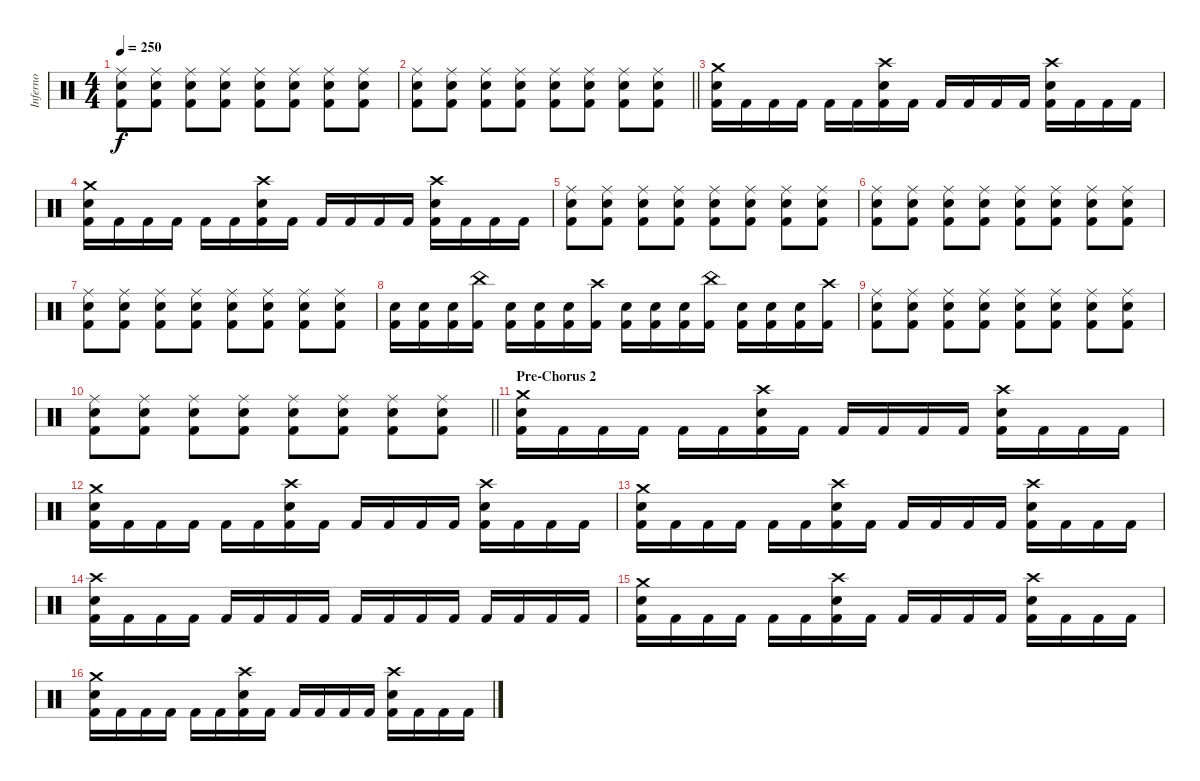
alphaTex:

\track ("Inferno" "Inferno") {instrument percussion}
\staff {score}
\articulation defaults
\ts (4 4)
\tempo 250
\clef neutral
\ks c
("Ride (middle)" "Electric Snare (hit)" "Kick (hit) 2").8{dy f} ("Ride (middle)" "Electric Snare (hit)" "Kick (hit) 2").8 ("Ride (middle)" "Electric Snare (hit)" "Kick (hit) 2").8 ("Ride (middle)" "Electric Snare (hit)" "Kick (hit) 2").8 ("Ride (middle)" "Electric Snare (hit)" "Kick (hit) 2").8 ("Ride (middle)" "Electric Snare (hit)" "Kick (hit) 2").8 ("Ride (middle)" "Electric Snare (hit)" "Kick (hit) 2").8 ("Ride (middle)" "Electric Snare (hit)" "Kick (hit) 2").8 |
\barLineRight lightlight
("Ride (middle)" "Electric Snare (hit)" "Kick (hit) 2").8 ("Ride (middle)" "Electric Snare (hit)" "Kick (hit) 2").8 ("Ride (middle)" "Electric Snare (hit)" "Kick (hit) 2").8 ("Ride (middle)" "Electric Snare (hit)" "Kick (hit) 2").8 ("Ride (middle)" "Electric Snare (hit)" "Kick (hit) 2").8 ("Ride (middle)" "Electric Snare (hit)" "Kick (hit) 2").8 ("Ride (middle)" "Electric Snare (hit)" "Kick (hit) 2").8 ("Ride (middle)" "Electric Snare (hit)" "Kick (hit) 2").8 |
("Crash medium (hit)" "Electric Snare (hit)" "Kick (hit) 2").16 "Kick (hit) 2".16 "Kick (hit) 2".16 "Kick (hit) 2".16 "Kick (hit) 2".16 "Kick (hit) 2".16 ("Crash high (hit)" "Electric Snare (hit)" "Kick (hit) 2").16 "Kick (hit) 2".16 "Kick (hit) 2".16 "Kick (hit) 2".16 "Kick (hit) 2".16 "Kick (hit) 2".16 ("Crash high (hit)" "Electric Snare (hit)" "Kick (hit) 2").16 "Kick (hit) 2".16 "Kick (hit) 2".16 "Kick (hit) 2".16 |
("Crash medium (hit)" "Electric Snare (hit)" "Kick (hit) 2").16 "Kick (hit) 2".16 "Kick (hit) 2".16 "Kick (hit) 2".16 "Kick (hit) 2".16 "Kick (hit) 2".16 ("Crash high (hit)" "Electric Snare (hit)" "Kick (hit) 2").16 "Kick (hit) 2".16 "Kick (hit) 2".16 "Kick (hit) 2".16 "Kick (hit) 2".16 "Kick (hit) 2".16 ("Crash high (hit)" "Electric Snare (hit)" "Kick (hit) 2").16 "Kick (hit) 2".16 "Kick (hit) 2".16 "Kick (hit) 2".16 |
("Ride (middle)" "Electric Snare (hit)" "Kick (hit) 2").8 ("Ride (middle)" "Electric Snare (hit)" "Kick (hit) 2").8 ("Ride (middle)" "Electric Snare (hit)" "Kick (hit) 2").8 ("Ride (middle)" "Electric Snare (hit)" "Kick (hit) 2").8 ("Ride (middle)" "Electric Snare (hit)" "Kick (hit) 2").8 ("Ride (middle)" "Electric Snare (hit)" "Kick (hit) 2").8 ("Ride (middle)" "Electric Snare (hit)" "Kick (hit) 2").8 ("Ride (middle)" "Electric Snare (hit)" "Kick (hit) 2").8 |
("Ride (middle)" "Electric Snare (hit)" "Kick (hit) 2").8 ("Ride (middle)" "Electric Snare (hit)" "Kick (hit) 2").8 ("Ride (middle)" "Electric Snare (hit)" "Kick (hit) 2").8 ("Ride (middle)" "Electric Snare (hit)" "Kick (hit) 2").8 ("Ride (middle)" "Electric Snare (hit)" "Kick (hit) 2").8 ("Ride (middle)" "Electric Snare (hit)" "Kick (hit) 2").8 ("Ride (middle)" "Electric Snare (hit)" "Kick (hit) 2").8 ("Ride (middle)" "Electric Snare (hit)" "Kick (hit) 2").8 |
("Ride (middle)" "Electric Snare (hit)" "Kick (hit) 2").8 ("Ride (middle)" "Electric Snare (hit)" "Kick (hit) 2").8 ("Ride (middle)" "Electric Snare (hit)" "Kick (hit) 2").8 ("Ride (middle)" "Electric Snare (hit)" "Kick (hit) 2").8 ("Ride (middle)" "Electric Snare (hit)" "Kick (hit) 2").8 ("Ride (middle)" "Electric Snare (hit)" "Kick (hit) 2").8 ("Ride (middle)" "Electric Snare (hit)" "Kick (hit) 2").8 ("Ride (middle)" "Electric Snare (hit)" "Kick (hit) 2").8 |
("Electric Snare (hit)" "Kick (hit) 2").16 ("Electric Snare (hit)" "Kick (hit) 2").16 ("Electric Snare (hit)" "Kick (hit) 2").16 ("China (hit)" "Kick (hit) 2").16 ("Electric Snare (hit)" "Kick (hit) 2").16 ("Electric Snare (hit)" "Kick (hit) 2").16 ("Electric Snare (hit)" "Kick (hit) 2").16 ("Crash high (hit)" "Kick (hit) 2").16 ("Electric Snare (hit)" "Kick (hit) 2").16 ("Electric Snare (hit)" "Kick (hit) 2").16 ("Electric Snare (hit)" "Kick (hit) 2").16 ("China (hit)" "Kick (hit) 2").16 ("Electric Snare (hit)" "Kick (hit) 2").16 ("Electric Snare (hit)" "Kick (hit) 2").16 ("Electric Snare (hit)" "Kick (hit) 2").16 ("Crash high (hit)" "Kick (hit) 2").16 |
("Ride (middle)" "Electric Snare (hit)" "Kick (hit) 2").8 ("Ride (middle)" "Electric Snare (hit)" "Kick (hit) 2").8 ("Ride (middle)" "Electric Snare (hit)" "Kick (hit) 2").8 ("Ride (middle)" "Electric Snare (hit)" "Kick (hit) 2").8 ("Ride (middle)" "Electric Snare (hit)" "Kick (hit) 2").8 ("Ride (middle)" "Electric Snare (hit)" "Kick (hit) 2").8 ("Ride (middle)" "Electric Snare (hit)" "Kick (hit) 2").8 ("Ride (middle)" "Electric Snare (hit)" "Kick (hit) 2").8 |
\barLineRight lightlight
("Ride (middle)" "Electric Snare (hit)" "Kick (hit) 2").8 ("Ride (middle)" "Electric Snare (hit)" "Kick (hit) 2").8 ("Ride (middle)" "Electric Snare (hit)" "Kick (hit) 2").8 ("Ride (middle)" "Electric Snare (hit)" "Kick (hit) 2").8 ("Ride (middle)" "Electric Snare (hit)" "Kick (hit) 2").8 ("Ride (middle)" "Electric Snare (hit)" "Kick (hit) 2").8 ("Ride (middle)" "Electric Snare (hit)" "Kick (hit) 2").8 ("Ride (middle)" "Electric Snare (hit)" "Kick (hit) 2").8 |
\section ("" "Pre-Chorus 2")
("Crash medium (hit)" "Electric Snare (hit)" "Kick (hit) 2").16 "Kick (hit) 2".16 "Kick (hit) 2".16 "Kick (hit) 2".16 "Kick (hit) 2".16 "Kick (hit) 2".16 ("Crash high (hit)" "Electric Snare (hit)" "Kick (hit) 2").16 "Kick (hit) 2".16 "Kick (hit) 2".16 "Kick (hit) 2".16 "Kick (hit) 2".16 "Kick (hit) 2".16 ("Crash high (hit)" "Electric Snare (hit)" "Kick (hit) 2").16 "Kick (hit) 2".16 "Kick (hit) 2".16 "Kick (hit) 2".16 |
("Crash medium (hit)" "Electric Snare (hit)" "Kick (hit) 2").16 "Kick (hit) 2".16 "Kick (hit) 2".16 "Kick (hit) 2".16 "Kick (hit) 2".16 "Kick (hit) 2".16 ("Crash high (hit)" "Electric Snare (hit)" "Kick (hit) 2").16 "Kick (hit) 2".16 "Kick (hit) 2".16 "Kick (hit) 2".16 "Kick (hit) 2".16 "Kick (hit) 2".16 ("Crash high (hit)" "Electric Snare (hit)" "Kick (hit) 2").16 "Kick (hit) 2".16 "Kick (hit) 2".16 "Kick (hit) 2".16 |
("Crash medium (hit)" "Electric Snare (hit)" "Kick (hit) 2").16 "Kick (hit) 2".16 "Kick (hit) 2".16 "Kick (hit) 2".16 "Kick (hit) 2".16 "Kick (hit) 2".16 ("Crash high (hit)" "Electric Snare (hit)" "Kick (hit) 2").16 "Kick (hit) 2".16 "Kick (hit) 2".16 "Kick (hit) 2".16 "Kick (hit) 2".16 "Kick (hit) 2".16 ("Crash high (hit)" "Electric Snare (hit)" "Kick (hit) 2").16 "Kick (hit) 2".16 "Kick (hit) 2".16 "Kick (hit) 2".16 |
("Crash high (hit)" "Electric Snare (hit)" "Kick (hit) 2").16 "Kick (hit) 2".16 "Kick (hit) 2".16 "Kick (hit) 2".16 "Kick (hit) 2".16 "Kick (hit) 2".16 "Kick (hit) 2".16 "Kick (hit) 2".16 "Kick (hit) 2".16 "Kick (hit) 2".16 "Kick (hit) 2".16 "Kick (hit) 2".16 "Kick (hit) 2".16 "Kick (hit) 2".16 "Kick (hit) 2".16 "Kick (hit) 2".16 |
("Crash medium (hit)" "Electric Snare (hit)" "Kick (hit) 2").16 "Kick (hit) 2".16 "Kick (hit) 2".16 "Kick (hit) 2".16 "Kick (hit) 2".16 "Kick (hit) 2".16 ("Crash high (hit)" "Electric Snare (hit)" "Kick (hit) 2").16 "Kick (hit) 2".16 "Kick (hit) 2".16 "Kick (hit) 2".16 "Kick (hit) 2".16 "Kick (hit) 2".16 ("Crash high (hit)" "Electric Snare (hit)" "Kick (hit) 2").16 "Kick (hit) 2".16 "Kick (hit) 2".16 "Kick (hit) 2".16 |
("Crash medium (hit)" "Electric Snare (hit)" "Kick (hit) 2").16 "Kick (hit) 2".16 "Kick (hit) 2".16 "Kick (hit) 2".16 "Kick (hit) 2".16 "Kick (hit) 2".16 ("Crash high (hit)" "Electric Snare (hit)" "Kick (hit) 2").16 "Kick (hit) 2".16 "Kick (hit) 2".16 "Kick (hit) 2".16 "Kick (hit) 2".16 "Kick (hit) 2".16 ("Crash high (hit)" "Electric Snare (hit)" "Kick (hit) 2").16 "Kick (hit) 2".16 "Kick (hit) 2".16 "Kick (hit) 2".16
